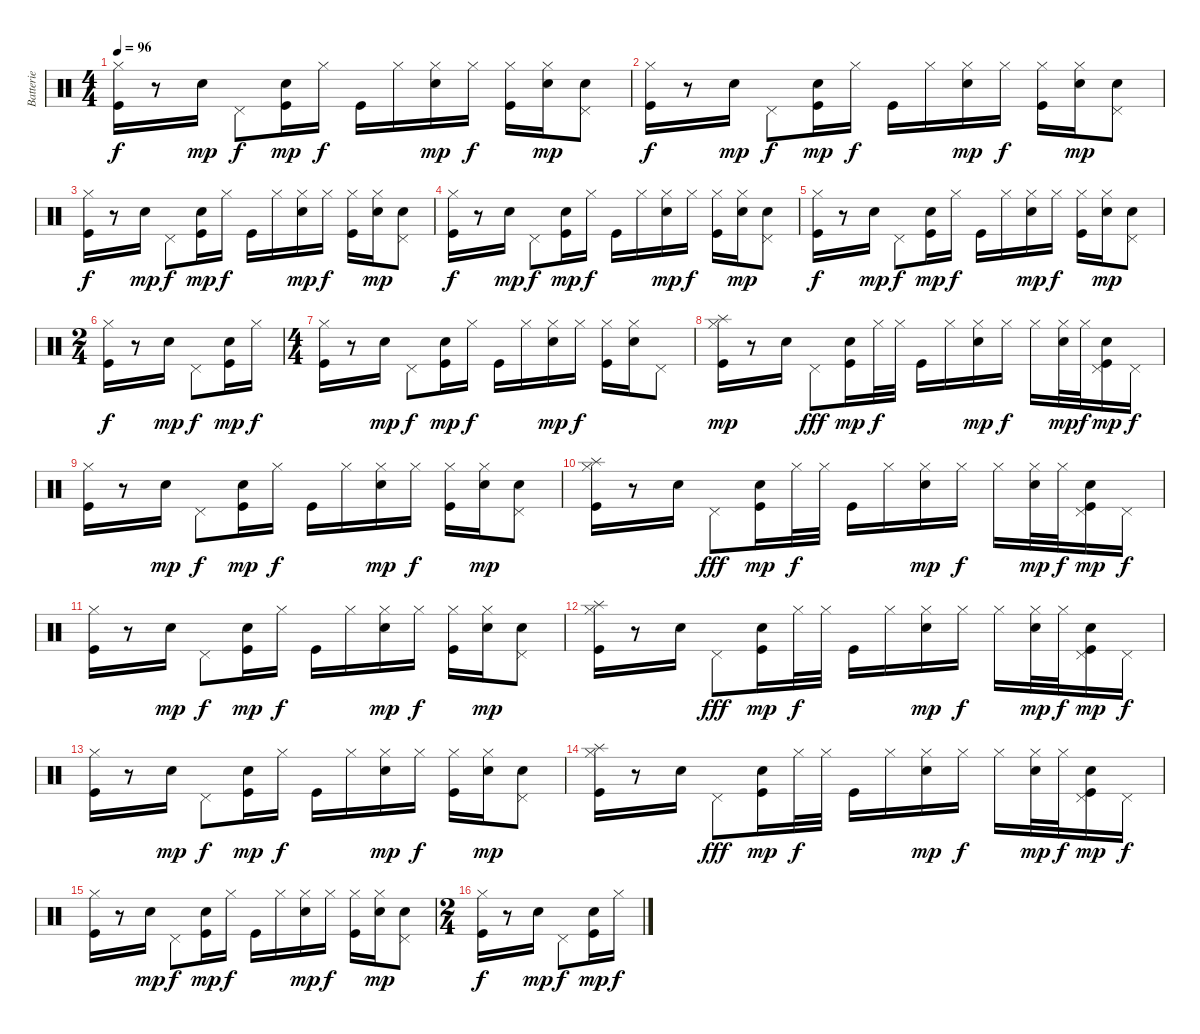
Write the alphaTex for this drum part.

\track ("Batterie" "Batterie") {instrument percussion}
\staff {score}
\articulation defaults
\ts (4 4)
\tempo 96
\clef neutral
\ks c
("Hi-Hat (closed)" "Kick (hit)").16{dy f} r.8 "Electric Snare (hit)".16{dy mp} "Pedal Hi-Hat (hit)".8{dy f} ("Electric Snare (hit)" "Kick (hit)").16{dy mp} "Hi-Hat (closed)".16{dy f} "Kick (hit)".16 "Hi-Hat (closed)".16 ("Hi-Hat (closed)" "Electric Snare (hit)").16{dy mp} "Hi-Hat (closed)".16{dy f} ("Hi-Hat (closed)" "Kick (hit)").16 ("Hi-Hat (closed)" "Electric Snare (hit)").16{dy mp} ("Pedal Hi-Hat (hit)" "Electric Snare (hit)").8 |
("Hi-Hat (closed)" "Kick (hit)").16{dy f} r.8 "Electric Snare (hit)".16{dy mp} "Pedal Hi-Hat (hit)".8{dy f} ("Electric Snare (hit)" "Kick (hit)").16{dy mp} "Hi-Hat (closed)".16{dy f} "Kick (hit)".16 "Hi-Hat (closed)".16 ("Hi-Hat (closed)" "Electric Snare (hit)").16{dy mp} "Hi-Hat (closed)".16{dy f} ("Hi-Hat (closed)" "Kick (hit)").16 ("Hi-Hat (closed)" "Electric Snare (hit)").16{dy mp} ("Pedal Hi-Hat (hit)" "Electric Snare (hit)").8 |
("Hi-Hat (closed)" "Kick (hit)").16{dy f} r.8 "Electric Snare (hit)".16{dy mp} "Pedal Hi-Hat (hit)".8{dy f} ("Electric Snare (hit)" "Kick (hit)").16{dy mp} "Hi-Hat (closed)".16{dy f} "Kick (hit)".16 "Hi-Hat (closed)".16 ("Hi-Hat (closed)" "Electric Snare (hit)").16{dy mp} "Hi-Hat (closed)".16{dy f} ("Hi-Hat (closed)" "Kick (hit)").16 ("Hi-Hat (closed)" "Electric Snare (hit)").16{dy mp} ("Pedal Hi-Hat (hit)" "Electric Snare (hit)").8 |
("Hi-Hat (closed)" "Kick (hit)").16{dy f} r.8 "Electric Snare (hit)".16{dy mp} "Pedal Hi-Hat (hit)".8{dy f} ("Electric Snare (hit)" "Kick (hit)").16{dy mp} "Hi-Hat (closed)".16{dy f} "Kick (hit)".16 "Hi-Hat (closed)".16 ("Hi-Hat (closed)" "Electric Snare (hit)").16{dy mp} "Hi-Hat (closed)".16{dy f} ("Hi-Hat (closed)" "Kick (hit)").16 ("Hi-Hat (closed)" "Electric Snare (hit)").16{dy mp} ("Pedal Hi-Hat (hit)" "Electric Snare (hit)").8 |
("Hi-Hat (closed)" "Kick (hit)").16{dy f} r.8 "Electric Snare (hit)".16{dy mp} "Pedal Hi-Hat (hit)".8{dy f} ("Electric Snare (hit)" "Kick (hit)").16{dy mp} "Hi-Hat (closed)".16{dy f} "Kick (hit)".16 "Hi-Hat (closed)".16 ("Hi-Hat (closed)" "Electric Snare (hit)").16{dy mp} "Hi-Hat (closed)".16{dy f} ("Hi-Hat (closed)" "Kick (hit)").16 ("Hi-Hat (closed)" "Electric Snare (hit)").16{dy mp} ("Pedal Hi-Hat (hit)" "Electric Snare (hit)").8 |
\ts (2 4)
("Hi-Hat (closed)" "Kick (hit)").16{dy f} r.8 "Electric Snare (hit)".16{dy mp} "Pedal Hi-Hat (hit)".8{dy f} ("Electric Snare (hit)" "Kick (hit)").16{dy mp} "Hi-Hat (closed)".16{dy f} |
\ts (4 4)
("Hi-Hat (closed)" "Kick (hit)").16 r.8 "Electric Snare (hit)".16{dy mp} "Pedal Hi-Hat (hit)".8{dy f} ("Electric Snare (hit)" "Kick (hit)").16{dy mp} "Hi-Hat (closed)".16{dy f} "Kick (hit)".16 "Hi-Hat (closed)".16 ("Hi-Hat (closed)" "Electric Snare (hit)").16{dy mp} "Hi-Hat (closed)".16{dy f} ("Hi-Hat (closed)" "Kick (hit)").16 ("Hi-Hat (closed)" "Electric Snare (hit)").16 "Pedal Hi-Hat (hit)".8 |
("Splash (hit)" "Hi-Hat (closed)" "Kick (hit)").16{dy mp} r.8 "Electric Snare (hit)".16 "Pedal Hi-Hat (hit)".8{dy fff} ("Electric Snare (hit)" "Kick (hit)").16{dy mp} "Hi-Hat (closed)".32{dy f} "Hi-Hat (closed)".32 "Kick (hit)".16 "Hi-Hat (closed)".16 ("Hi-Hat (closed)" "Electric Snare (hit)").16{dy mp} "Hi-Hat (closed)".16{dy f} "Hi-Hat (closed)".16 ("Hi-Hat (closed)" "Electric Snare (hit)").32{dy mp} "Hi-Hat (closed)".32{dy f} ("Pedal Hi-Hat (hit)" "Electric Snare (hit)" "Kick (hit)").16{dy mp} "Pedal Hi-Hat (hit)".16{dy f} |
("Hi-Hat (closed)" "Kick (hit)").16 r.8 "Electric Snare (hit)".16{dy mp} "Pedal Hi-Hat (hit)".8{dy f} ("Electric Snare (hit)" "Kick (hit)").16{dy mp} "Hi-Hat (closed)".16{dy f} "Kick (hit)".16 "Hi-Hat (closed)".16 ("Hi-Hat (closed)" "Electric Snare (hit)").16{dy mp} "Hi-Hat (closed)".16{dy f} ("Hi-Hat (closed)" "Kick (hit)").16 ("Hi-Hat (closed)" "Electric Snare (hit)").16{dy mp} ("Pedal Hi-Hat (hit)" "Electric Snare (hit)").8 |
("Splash (hit)" "Hi-Hat (closed)" "Kick (hit)").16 r.8 "Electric Snare (hit)".16 "Pedal Hi-Hat (hit)".8{dy fff} ("Electric Snare (hit)" "Kick (hit)").16{dy mp} "Hi-Hat (closed)".32{dy f} "Hi-Hat (closed)".32 "Kick (hit)".16 "Hi-Hat (closed)".16 ("Hi-Hat (closed)" "Electric Snare (hit)").16{dy mp} "Hi-Hat (closed)".16{dy f} "Hi-Hat (closed)".16 ("Hi-Hat (closed)" "Electric Snare (hit)").32{dy mp} "Hi-Hat (closed)".32{dy f} ("Pedal Hi-Hat (hit)" "Electric Snare (hit)" "Kick (hit)").16{dy mp} "Pedal Hi-Hat (hit)".16{dy f} |
("Hi-Hat (closed)" "Kick (hit)").16 r.8 "Electric Snare (hit)".16{dy mp} "Pedal Hi-Hat (hit)".8{dy f} ("Electric Snare (hit)" "Kick (hit)").16{dy mp} "Hi-Hat (closed)".16{dy f} "Kick (hit)".16 "Hi-Hat (closed)".16 ("Hi-Hat (closed)" "Electric Snare (hit)").16{dy mp} "Hi-Hat (closed)".16{dy f} ("Hi-Hat (closed)" "Kick (hit)").16 ("Hi-Hat (closed)" "Electric Snare (hit)").16{dy mp} ("Pedal Hi-Hat (hit)" "Electric Snare (hit)").8 |
("Splash (hit)" "Hi-Hat (closed)" "Kick (hit)").16 r.8 "Electric Snare (hit)".16 "Pedal Hi-Hat (hit)".8{dy fff} ("Electric Snare (hit)" "Kick (hit)").16{dy mp} "Hi-Hat (closed)".32{dy f} "Hi-Hat (closed)".32 "Kick (hit)".16 "Hi-Hat (closed)".16 ("Hi-Hat (closed)" "Electric Snare (hit)").16{dy mp} "Hi-Hat (closed)".16{dy f} "Hi-Hat (closed)".16 ("Hi-Hat (closed)" "Electric Snare (hit)").32{dy mp} "Hi-Hat (closed)".32{dy f} ("Pedal Hi-Hat (hit)" "Electric Snare (hit)" "Kick (hit)").16{dy mp} "Pedal Hi-Hat (hit)".16{dy f} |
("Hi-Hat (closed)" "Kick (hit)").16 r.8 "Electric Snare (hit)".16{dy mp} "Pedal Hi-Hat (hit)".8{dy f} ("Electric Snare (hit)" "Kick (hit)").16{dy mp} "Hi-Hat (closed)".16{dy f} "Kick (hit)".16 "Hi-Hat (closed)".16 ("Hi-Hat (closed)" "Electric Snare (hit)").16{dy mp} "Hi-Hat (closed)".16{dy f} ("Hi-Hat (closed)" "Kick (hit)").16 ("Hi-Hat (closed)" "Electric Snare (hit)").16{dy mp} ("Pedal Hi-Hat (hit)" "Electric Snare (hit)").8 |
("Splash (hit)" "Hi-Hat (closed)" "Kick (hit)").16 r.8 "Electric Snare (hit)".16 "Pedal Hi-Hat (hit)".8{dy fff} ("Electric Snare (hit)" "Kick (hit)").16{dy mp} "Hi-Hat (closed)".32{dy f} "Hi-Hat (closed)".32 "Kick (hit)".16 "Hi-Hat (closed)".16 ("Hi-Hat (closed)" "Electric Snare (hit)").16{dy mp} "Hi-Hat (closed)".16{dy f} "Hi-Hat (closed)".16 ("Hi-Hat (closed)" "Electric Snare (hit)").32{dy mp} "Hi-Hat (closed)".32{dy f} ("Pedal Hi-Hat (hit)" "Electric Snare (hit)" "Kick (hit)").16{dy mp} "Pedal Hi-Hat (hit)".16{dy f} |
("Hi-Hat (closed)" "Kick (hit)").16 r.8 "Electric Snare (hit)".16{dy mp} "Pedal Hi-Hat (hit)".8{dy f} ("Electric Snare (hit)" "Kick (hit)").16{dy mp} "Hi-Hat (closed)".16{dy f} "Kick (hit)".16 "Hi-Hat (closed)".16 ("Hi-Hat (closed)" "Electric Snare (hit)").16{dy mp} "Hi-Hat (closed)".16{dy f} ("Hi-Hat (closed)" "Kick (hit)").16 ("Hi-Hat (closed)" "Electric Snare (hit)").16{dy mp} ("Pedal Hi-Hat (hit)" "Electric Snare (hit)").8 |
\ts (2 4)
("Hi-Hat (closed)" "Kick (hit)").16{dy f} r.8 "Electric Snare (hit)".16{dy mp} "Pedal Hi-Hat (hit)".8{dy f} ("Electric Snare (hit)" "Kick (hit)").16{dy mp} "Hi-Hat (closed)".16{dy f}
